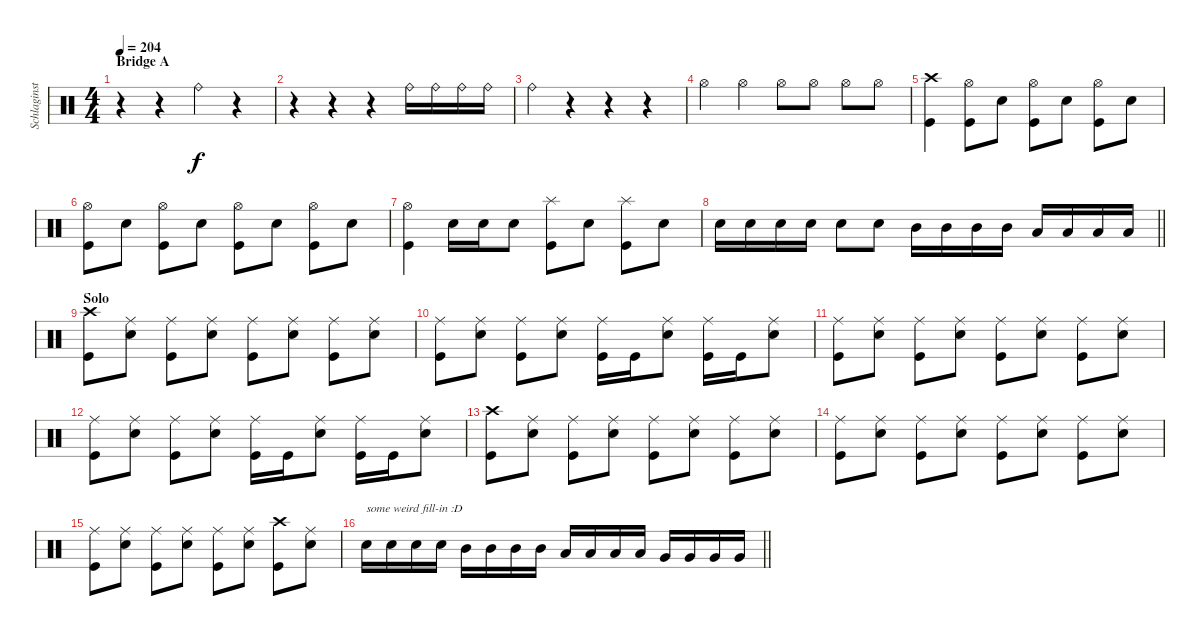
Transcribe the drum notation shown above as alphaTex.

\track ("Schlaginstrumente - Auswahl" "Schlaginst") {instrument percussion}
\staff {score}
\articulation defaults
\ts (4 4)
\section ("" "Bridge A")
\tempo 204
\clef neutral
\ks c
r.4{dy f} r.4 "Ride (bell)".4 r.4 |
r.4 r.4 r.4 "Ride (bell)".16 "Ride (bell)".16 "Ride (bell)".16 "Ride (bell)".16 |
"Ride (bell)".4 r.4 r.4 r.4 |
"Hi-Hat (open)".4 "Hi-Hat (open)".4 "Hi-Hat (open)".8 "Hi-Hat (open)".8 "Hi-Hat (open)".8 "Hi-Hat (open)".8 |
("Kick (hit)" "Crash high (hit)").4 ("Kick (hit)" "Hi-Hat (open)").8 "Snare (hit) 2".8 ("Kick (hit)" "Hi-Hat (open)").8 "Snare (hit) 2".8 ("Kick (hit)" "Hi-Hat (open)").8 "Snare (hit) 2".8 |
("Kick (hit)" "Hi-Hat (open)").8 "Snare (hit) 2".8 ("Kick (hit)" "Hi-Hat (open)").8 "Snare (hit) 2".8 ("Kick (hit)" "Hi-Hat (open)").8 "Snare (hit) 2".8 ("Kick (hit)" "Hi-Hat (open)").8 "Snare (hit) 2".8 |
("Kick (hit)" "Hi-Hat (open)").4 "Snare (hit) 2".16 "Snare (hit) 2".16 "Snare (hit) 2".8 ("Kick (hit)" "Splash (hit)").8 "Snare (hit) 2".8 ("Kick (hit)" "Splash (hit)").8 "Snare (hit) 2".8 |
\barLineRight lightlight "Snare (hit) 2".16 "Snare (hit) 2".16 "Snare (hit) 2".16 "Snare (hit) 2".16 "Snare (hit) 2".8 "Snare (hit) 2".8 "Mid Tom (hit)".16 "Mid Tom (hit)".16 "Mid Tom (hit)".16 "Mid Tom (hit)".16 "Low Tom (hit)".16 "Low Tom (hit)".16 "Low Tom (hit)".16 "Low Tom (hit)".16
|
\section ("" "Solo")
("Kick (hit)" "Crash high (hit)").8 ("Snare (hit) 2" "Ride (middle)").8 ("Kick (hit)" "Ride (middle)").8 ("Snare (hit) 2" "Ride (middle)").8 ("Kick (hit)" "Ride (middle)").8 ("Snare (hit) 2" "Ride (middle)").8 ("Kick (hit)" "Ride (middle)").8 ("Snare (hit) 2" "Ride (middle)").8 |
("Kick (hit)" "Ride (middle)").8 ("Snare (hit) 2" "Ride (middle)").8 ("Kick (hit)" "Ride (middle)").8 ("Snare (hit) 2" "Ride (middle)").8 ("Kick (hit)" "Ride (middle)").16 "Kick (hit)".16 ("Snare (hit) 2" "Ride (middle)").8 ("Kick (hit)" "Ride (middle)").16 "Kick (hit)".16 ("Snare (hit) 2" "Ride (middle)").8 |
("Kick (hit)" "Ride (middle)").8 ("Snare (hit) 2" "Ride (middle)").8 ("Kick (hit)" "Ride (middle)").8 ("Snare (hit) 2" "Ride (middle)").8 ("Kick (hit)" "Ride (middle)").8 ("Snare (hit) 2" "Ride (middle)").8 ("Kick (hit)" "Ride (middle)").8 ("Snare (hit) 2" "Ride (middle)").8 |
("Kick (hit)" "Ride (middle)").8 ("Snare (hit) 2" "Ride (middle)").8 ("Kick (hit)" "Ride (middle)").8 ("Snare (hit) 2" "Ride (middle)").8 ("Kick (hit)" "Ride (middle)").16 "Kick (hit)".16 ("Snare (hit) 2" "Ride (middle)").8 ("Kick (hit)" "Ride (middle)").16 "Kick (hit)".16 ("Snare (hit) 2" "Ride (middle)").8 |
("Kick (hit)" "Crash high (hit)").8 ("Snare (hit) 2" "Ride (middle)").8 ("Kick (hit)" "Ride (middle)").8 ("Snare (hit) 2" "Ride (middle)").8 ("Kick (hit)" "Ride (middle)").8 ("Snare (hit) 2" "Ride (middle)").8 ("Kick (hit)" "Ride (middle)").8 ("Snare (hit) 2" "Ride (middle)").8 |
("Kick (hit)" "Ride (middle)").8 ("Snare (hit) 2" "Ride (middle)").8 ("Kick (hit)" "Ride (middle)").8 ("Snare (hit) 2" "Ride (middle)").8 ("Kick (hit)" "Ride (middle)").8 ("Snare (hit) 2" "Ride (middle)").8 ("Kick (hit)" "Ride (middle)").8 ("Snare (hit) 2" "Ride (middle)").8 |
("Kick (hit)" "Ride (middle)").8 ("Snare (hit) 2" "Ride (middle)").8 ("Kick (hit)" "Ride (middle)").8 ("Snare (hit) 2" "Ride (middle)").8 ("Kick (hit)" "Ride (middle)").8 ("Snare (hit) 2" "Ride (middle)").8 ("Kick (hit)" "Crash high (hit)").8 ("Snare (hit) 2" "Ride (middle)").8 |
\barLineRight lightlight "Snare (hit) 2".16{txt "some weird fill-in :D"} "Snare (hit) 2".16 "Snare (hit) 2".16 "Snare (hit) 2".16 "Mid Tom (hit)".16 "Mid Tom (hit)".16 "Mid Tom (hit)".16 "Mid Tom (hit)".16 "Low Tom (hit)".16 "Low Tom (hit)".16 "Low Tom (hit)".16 "Low Tom (hit)".16 "Very Low Tom (hit)".16 "Very Low Tom (hit)".16 "Very Low Tom (hit)".16 "Very Low Tom (hit)".16
